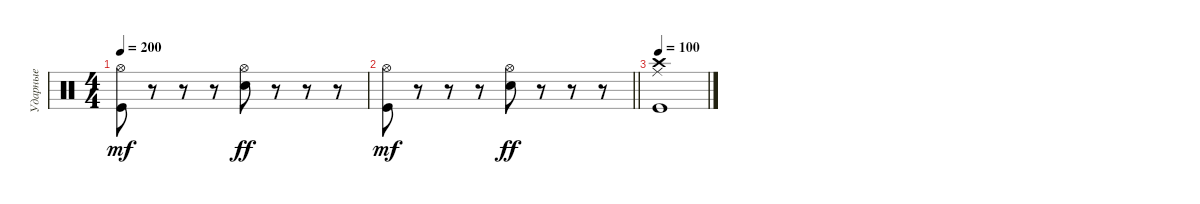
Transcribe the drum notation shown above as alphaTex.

\track ("Ударные" "Ударные") {instrument percussion}
\staff {score}
\articulation defaults
\ts (4 4)
\tempo 200
\clef neutral
\ks c
("Kick (hit)" "Hi-Hat (open)").8{dy mf} r.8 r.8 r.8 ("Electric Snare (hit)" "Hi-Hat (open)").8{dy ff} r.8 r.8 r.8 |
\barLineRight lightlight
("Kick (hit)" "Hi-Hat (open)").8{dy mf} r.8 r.8 r.8 ("Electric Snare (hit)" "Hi-Hat (open)").8{dy ff} r.8 r.8 r.8 |
\tempo 100
("Ride (middle)" "Kick (hit)" "Crash high (hit)").1
